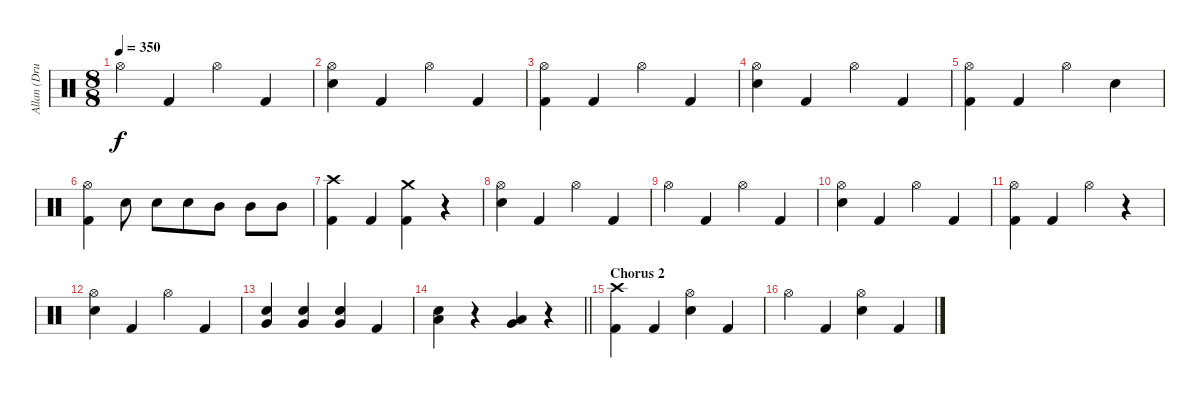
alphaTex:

\track ("Allan (Drums)" "Allan (Dru") {solo instrument percussion}
\staff {score}
\articulation defaults
\ts (8 8)
\tempo 350
\clef neutral
\ks c "Hi-Hat (open)".4{dy f} "Kick (hit) 2".4 "Hi-Hat (open)".4 "Kick (hit) 2".4
|
("Hi-Hat (open)" "Snare (hit) 2").4 "Kick (hit) 2".4 "Hi-Hat (open)".4 "Kick (hit) 2".4 |
("Hi-Hat (open)" "Kick (hit) 2").4 "Kick (hit) 2".4 "Hi-Hat (open)".4 "Kick (hit) 2".4 |
("Hi-Hat (open)" "Snare (hit) 2").4 "Kick (hit) 2".4 "Hi-Hat (open)".4 "Kick (hit) 2".4 |
("Hi-Hat (open)" "Kick (hit) 2").4 "Kick (hit) 2".4 "Hi-Hat (open)".4 "Snare (hit) 2".4 |
("Hi-Hat (open)" "Kick (hit) 2").4 "Snare (hit) 2".8 "Snare (hit) 2".8 "Snare (hit) 2".8 "Mid Tom (hit)".8 "Mid Tom (hit)".8 "Mid Tom (hit)".8 |
("Crash high (hit)" "Kick (hit) 2").4 "Kick (hit) 2".4 ("Crash medium (hit)" "Kick (hit) 2").4 r.4 |
("Hi-Hat (open)" "Snare (hit) 2").4 "Kick (hit) 2".4 "Hi-Hat (open)".4 "Kick (hit) 2".4 |
"Hi-Hat (open)".4 "Kick (hit) 2".4 "Hi-Hat (open)".4 "Kick (hit) 2".4 |
("Hi-Hat (open)" "Snare (hit) 2").4 "Kick (hit) 2".4 "Hi-Hat (open)".4 "Kick (hit) 2".4 |
("Hi-Hat (open)" "Kick (hit) 2").4 "Kick (hit) 2".4 "Hi-Hat (open)".4 r.4 |
("Hi-Hat (open)" "Snare (hit) 2").4 "Kick (hit) 2".4 "Hi-Hat (open)".4 "Kick (hit) 2".4 |
("Very Low Tom (hit)" "Snare (hit) 2").4 ("Very Low Tom (hit)" "Snare (hit) 2").4 ("Very Low Tom (hit)" "Snare (hit) 2").4 "Kick (hit) 2".4 |
\barLineRight lightlight
("Low Tom (hit)" "Snare (hit) 2").4 r.4 ("Very Low Tom (hit)" "Low Tom (hit)").4 r.4 |
\section ("" "Chorus 2")
("Crash high (hit)" "Kick (hit) 2").4 "Kick (hit) 2".4 ("Hi-Hat (open)" "Snare (hit) 2").4 "Kick (hit) 2".4 |
"Hi-Hat (open)".4 "Kick (hit) 2".4 ("Hi-Hat (open)" "Snare (hit) 2").4 "Kick (hit) 2".4
